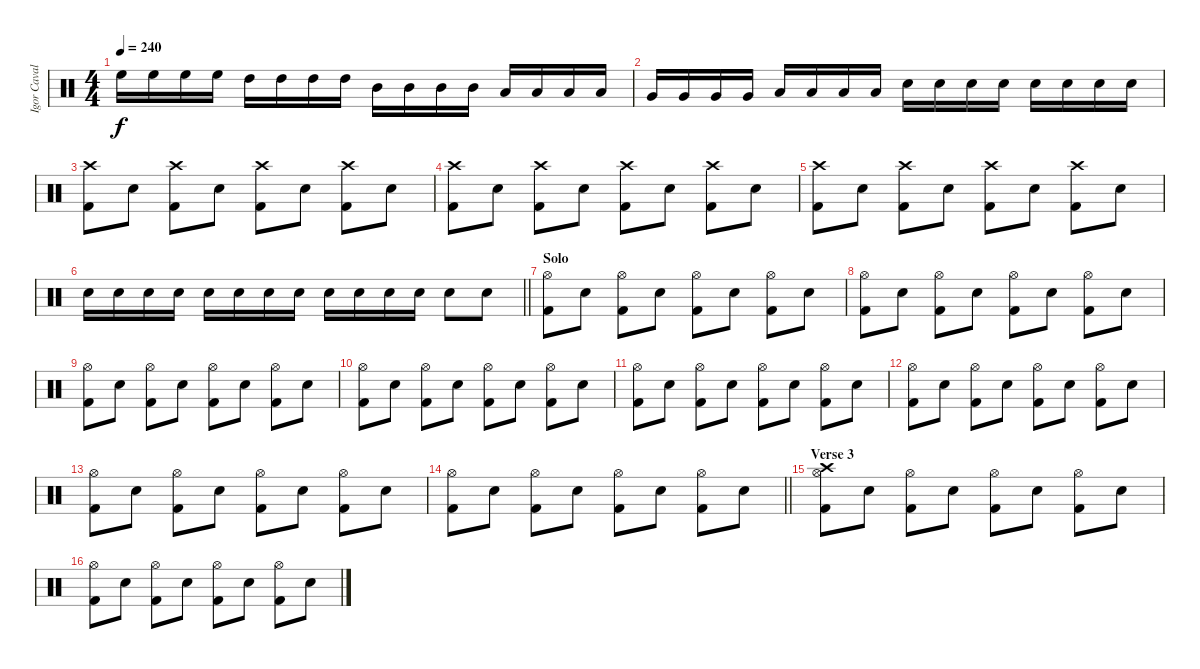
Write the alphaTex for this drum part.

\track ("Igor Cavalera" "Igor Caval") {instrument percussion}
\staff {score}
\articulation defaults
\ts (4 4)
\tempo 240
\clef neutral
\ks c "High Floor Tom (hit)".16{dy f} "High Floor Tom (hit)".16 "High Floor Tom (hit)".16 "High Floor Tom (hit)".16 "High Tom (hit)".16 "High Tom (hit)".16 "High Tom (hit)".16 "High Tom (hit)".16 "Mid Tom (hit)".16 "Mid Tom (hit)".16 "Mid Tom (hit)".16 "Mid Tom (hit)".16 "Low Tom (hit)".16 "Low Tom (hit)".16 "Low Tom (hit)".16 "Low Tom (hit)".16
|
"Very Low Tom (hit)".16 "Very Low Tom (hit)".16 "Very Low Tom (hit)".16 "Very Low Tom (hit)".16 "Low Floor Tom (hit)".16 "Low Floor Tom (hit)".16 "Low Floor Tom (hit)".16 "Low Floor Tom (hit)".16 "Snare (hit) 2".16 "Snare (hit) 2".16 "Snare (hit) 2".16 "Snare (hit) 2".16 "Electric Snare (hit)".16 "Electric Snare (hit)".16 "Electric Snare (hit)".16 "Electric Snare (hit)".16 |
("Crash high (hit)" "Kick (hit) 2").8 "Electric Snare (hit)".8 ("Crash high (hit)" "Kick (hit) 2").8 "Electric Snare (hit)".8 ("Crash high (hit)" "Kick (hit) 2").8 "Electric Snare (hit)".8 ("Crash high (hit)" "Kick (hit) 2").8 "Electric Snare (hit)".8 |
("Crash high (hit)" "Kick (hit) 2").8 "Electric Snare (hit)".8 ("Crash high (hit)" "Kick (hit) 2").8 "Electric Snare (hit)".8 ("Crash high (hit)" "Kick (hit) 2").8 "Electric Snare (hit)".8 ("Crash high (hit)" "Kick (hit) 2").8 "Electric Snare (hit)".8 |
("Crash high (hit)" "Kick (hit) 2").8 "Electric Snare (hit)".8 ("Crash high (hit)" "Kick (hit) 2").8 "Electric Snare (hit)".8 ("Crash high (hit)" "Kick (hit) 2").8 "Electric Snare (hit)".8 ("Crash high (hit)" "Kick (hit) 2").8 "Electric Snare (hit)".8 |
\barLineRight lightlight "Electric Snare (hit)".16 "Electric Snare (hit)".16 "Electric Snare (hit)".16 "Electric Snare (hit)".16 "Electric Snare (hit)".16 "Electric Snare (hit)".16 "Electric Snare (hit)".16 "Electric Snare (hit)".16 "Electric Snare (hit)".16 "Electric Snare (hit)".16 "Electric Snare (hit)".16 "Electric Snare (hit)".16 "Electric Snare (hit)".8 "Electric Snare (hit)".8
|
\section ("" "Solo")
("Hi-Hat (open)" "Kick (hit) 2").8 "Electric Snare (hit)".8 ("Hi-Hat (open)" "Kick (hit) 2").8 "Electric Snare (hit)".8 ("Hi-Hat (open)" "Kick (hit) 2").8 "Electric Snare (hit)".8 ("Hi-Hat (open)" "Kick (hit) 2").8 "Electric Snare (hit)".8 |
("Hi-Hat (open)" "Kick (hit) 2").8 "Electric Snare (hit)".8 ("Hi-Hat (open)" "Kick (hit) 2").8 "Electric Snare (hit)".8 ("Hi-Hat (open)" "Kick (hit) 2").8 "Electric Snare (hit)".8 ("Hi-Hat (open)" "Kick (hit) 2").8 "Electric Snare (hit)".8 |
("Hi-Hat (open)" "Kick (hit) 2").8 "Electric Snare (hit)".8 ("Hi-Hat (open)" "Kick (hit) 2").8 "Electric Snare (hit)".8 ("Hi-Hat (open)" "Kick (hit) 2").8 "Electric Snare (hit)".8 ("Hi-Hat (open)" "Kick (hit) 2").8 "Electric Snare (hit)".8 |
("Hi-Hat (open)" "Kick (hit) 2").8 "Electric Snare (hit)".8 ("Hi-Hat (open)" "Kick (hit) 2").8 "Electric Snare (hit)".8 ("Hi-Hat (open)" "Kick (hit) 2").8 "Electric Snare (hit)".8 ("Hi-Hat (open)" "Kick (hit) 2").8 "Electric Snare (hit)".8 |
("Hi-Hat (open)" "Kick (hit) 2").8 "Electric Snare (hit)".8 ("Hi-Hat (open)" "Kick (hit) 2").8 "Electric Snare (hit)".8 ("Hi-Hat (open)" "Kick (hit) 2").8 "Electric Snare (hit)".8 ("Hi-Hat (open)" "Kick (hit) 2").8 "Electric Snare (hit)".8 |
("Hi-Hat (open)" "Kick (hit) 2").8 "Electric Snare (hit)".8 ("Hi-Hat (open)" "Kick (hit) 2").8 "Electric Snare (hit)".8 ("Hi-Hat (open)" "Kick (hit) 2").8 "Electric Snare (hit)".8 ("Hi-Hat (open)" "Kick (hit) 2").8 "Electric Snare (hit)".8 |
("Hi-Hat (open)" "Kick (hit) 2").8 "Electric Snare (hit)".8 ("Hi-Hat (open)" "Kick (hit) 2").8 "Electric Snare (hit)".8 ("Hi-Hat (open)" "Kick (hit) 2").8 "Electric Snare (hit)".8 ("Hi-Hat (open)" "Kick (hit) 2").8 "Electric Snare (hit)".8 |
\barLineRight lightlight
("Hi-Hat (open)" "Kick (hit) 2").8 "Electric Snare (hit)".8 ("Hi-Hat (open)" "Kick (hit) 2").8 "Electric Snare (hit)".8 ("Hi-Hat (open)" "Kick (hit) 2").8 "Electric Snare (hit)".8 ("Hi-Hat (open)" "Kick (hit) 2").8 "Electric Snare (hit)".8 |
\section ("" "Verse 3")
("Crash high (hit)" "Hi-Hat (open)" "Kick (hit) 2").8 "Electric Snare (hit)".8 ("Hi-Hat (open)" "Kick (hit) 2").8 "Electric Snare (hit)".8 ("Hi-Hat (open)" "Kick (hit) 2").8 "Electric Snare (hit)".8 ("Hi-Hat (open)" "Kick (hit) 2").8 "Electric Snare (hit)".8 |
("Hi-Hat (open)" "Kick (hit) 2").8 "Electric Snare (hit)".8 ("Hi-Hat (open)" "Kick (hit) 2").8 "Electric Snare (hit)".8 ("Hi-Hat (open)" "Kick (hit) 2").8 "Electric Snare (hit)".8 ("Hi-Hat (open)" "Kick (hit) 2").8 "Electric Snare (hit)".8
